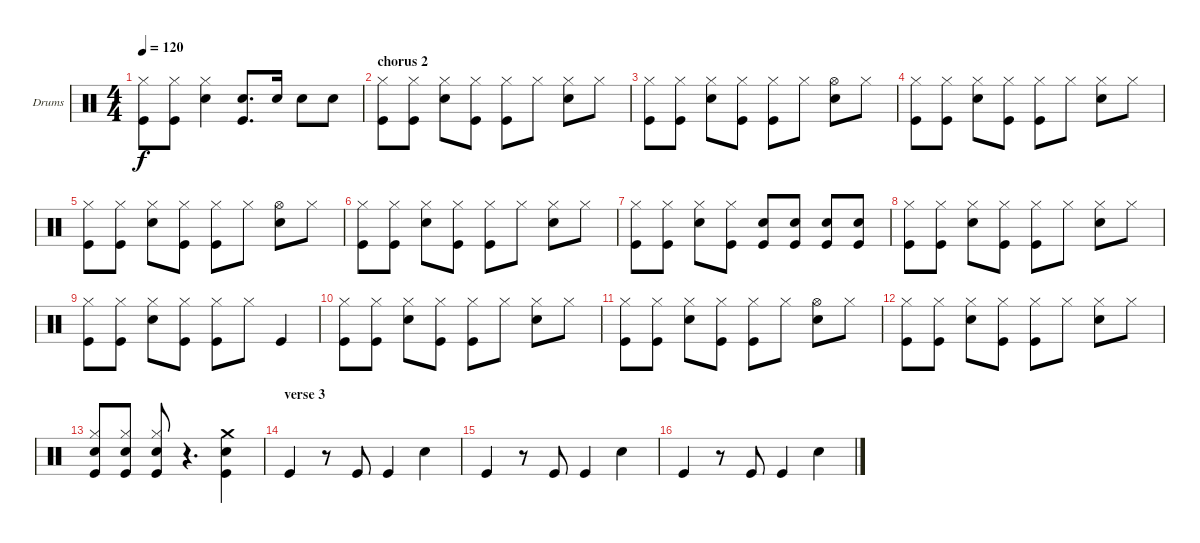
\bracketExtendMode groupsimilarinstruments
\firstSystemTrackNameOrientation horizontal
\otherSystemsTrackNameOrientation horizontal
\track ("Drumkit" "Drums") {instrument percussion}
\staff {score}
\articulation defaults
\ts (4 4)
\tempo 120
\clef neutral
\ks c
("Kick (hit)" "Hi-Hat (closed)").8{dy f} ("Kick (hit)" "Hi-Hat (closed)").8 ("Snare (hit) 2" "Hi-Hat (closed)").4 ("Kick (hit)" "Snare (hit) 2").8{d} "Snare (hit) 2".16 "Snare (hit) 2".8 "Snare (hit) 2".8 |
\section ("" "chorus 2")
("Kick (hit)" "Hi-Hat (closed)").8 ("Kick (hit)" "Hi-Hat (closed)").8 ("Snare (hit) 2" "Hi-Hat (closed)").8 ("Kick (hit)" "Hi-Hat (closed)").8 ("Kick (hit)" "Hi-Hat (closed)").8 "Hi-Hat (closed)".8 ("Snare (hit) 2" "Hi-Hat (closed)").8 "Hi-Hat (closed)".8 |
("Kick (hit)" "Hi-Hat (closed)").8 ("Kick (hit)" "Hi-Hat (closed)").8 ("Snare (hit) 2" "Hi-Hat (closed)").8 ("Kick (hit)" "Hi-Hat (closed)").8 ("Kick (hit)" "Hi-Hat (closed)").8 "Hi-Hat (closed)".8 ("Snare (hit) 2" "Hi-Hat (open)").8 "Hi-Hat (closed)".8 |
("Kick (hit)" "Hi-Hat (closed)").8 ("Kick (hit)" "Hi-Hat (closed)").8 ("Snare (hit) 2" "Hi-Hat (closed)").8 ("Kick (hit)" "Hi-Hat (closed)").8 ("Kick (hit)" "Hi-Hat (closed)").8 "Hi-Hat (closed)".8 ("Snare (hit) 2" "Hi-Hat (closed)").8 "Hi-Hat (closed)".8 |
("Kick (hit)" "Hi-Hat (closed)").8 ("Kick (hit)" "Hi-Hat (closed)").8 ("Snare (hit) 2" "Hi-Hat (closed)").8 ("Kick (hit)" "Hi-Hat (closed)").8 ("Kick (hit)" "Hi-Hat (closed)").8 "Hi-Hat (closed)".8 ("Snare (hit) 2" "Hi-Hat (open)").8 "Hi-Hat (closed)".8 |
("Kick (hit)" "Hi-Hat (closed)").8 ("Kick (hit)" "Hi-Hat (closed)").8 ("Snare (hit) 2" "Hi-Hat (closed)").8 ("Kick (hit)" "Hi-Hat (closed)").8 ("Kick (hit)" "Hi-Hat (closed)").8 "Hi-Hat (closed)".8 ("Snare (hit) 2" "Hi-Hat (closed)").8 "Hi-Hat (closed)".8 |
("Hi-Hat (closed)" "Kick (hit)").8 ("Hi-Hat (closed)" "Kick (hit)").8 ("Hi-Hat (closed)" "Snare (hit) 2").8 ("Hi-Hat (closed)" "Kick (hit)").8 ("Snare (hit) 2" "Kick (hit)").8 ("Snare (hit) 2" "Kick (hit)").8 ("Snare (hit) 2" "Kick (hit)").8 ("Snare (hit) 2" "Kick (hit)").8 |
("Kick (hit)" "Hi-Hat (closed)").8 ("Kick (hit)" "Hi-Hat (closed)").8 ("Snare (hit) 2" "Hi-Hat (closed)").8 ("Kick (hit)" "Hi-Hat (closed)").8 ("Kick (hit)" "Hi-Hat (closed)").8 "Hi-Hat (closed)".8 ("Snare (hit) 2" "Hi-Hat (closed)").8 "Hi-Hat (closed)".8 |
("Kick (hit)" "Hi-Hat (closed)").8 ("Kick (hit)" "Hi-Hat (closed)").8 ("Snare (hit) 2" "Hi-Hat (closed)").8 ("Kick (hit)" "Hi-Hat (closed)").8 ("Kick (hit)" "Hi-Hat (closed)").8 "Hi-Hat (closed)".8 "Kick (hit)".4 |
("Kick (hit)" "Hi-Hat (closed)").8 ("Kick (hit)" "Hi-Hat (closed)").8 ("Snare (hit) 2" "Hi-Hat (closed)").8 ("Kick (hit)" "Hi-Hat (closed)").8 ("Kick (hit)" "Hi-Hat (closed)").8 "Hi-Hat (closed)".8 ("Snare (hit) 2" "Hi-Hat (closed)").8 "Hi-Hat (closed)".8 |
("Kick (hit)" "Hi-Hat (closed)").8 ("Kick (hit)" "Hi-Hat (closed)").8 ("Snare (hit) 2" "Hi-Hat (closed)").8 ("Kick (hit)" "Hi-Hat (closed)").8 ("Kick (hit)" "Hi-Hat (closed)").8 "Hi-Hat (closed)".8 ("Snare (hit) 2" "Hi-Hat (open)").8 "Hi-Hat (closed)".8 |
("Kick (hit)" "Hi-Hat (closed)").8 ("Kick (hit)" "Hi-Hat (closed)").8 ("Snare (hit) 2" "Hi-Hat (closed)").8 ("Kick (hit)" "Hi-Hat (closed)").8 ("Kick (hit)" "Hi-Hat (closed)").8 "Hi-Hat (closed)".8 ("Snare (hit) 2" "Hi-Hat (closed)").8 "Hi-Hat (closed)".8 |
("Kick (hit)" "Snare (hit) 2" "Hi-Hat (closed)").8 ("Kick (hit)" "Snare (hit) 2" "Hi-Hat (closed)").8 ("Kick (hit)" "Snare (hit) 2" "Hi-Hat (closed)").8 r.4{d} ("Crash medium (hit)" "Kick (hit)" "Snare (hit) 2").4 |
\section ("" "verse 3")
"Kick (hit)".4 r.8 "Kick (hit)".8 "Kick (hit)".4 "Snare (hit) 2".4 |
"Kick (hit)".4 r.8 "Kick (hit)".8 "Kick (hit)".4 "Snare (hit) 2".4 |
"Kick (hit)".4 r.8 "Kick (hit)".8 "Kick (hit)".4 "Snare (hit) 2".4
